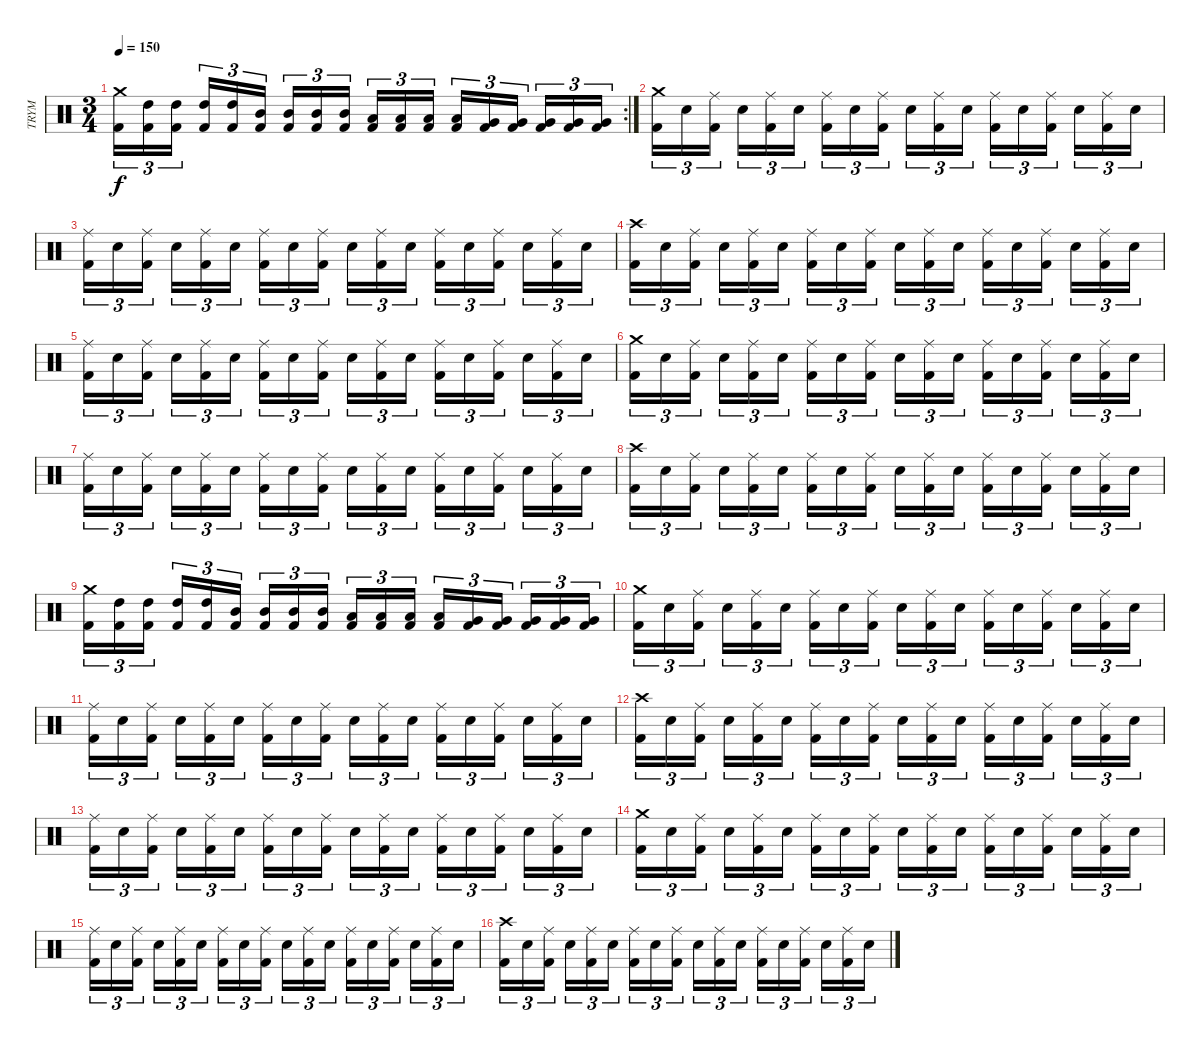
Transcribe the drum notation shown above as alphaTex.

\track ("TRYM" "TRYM") {instrument percussion}
\staff {score}
\articulation defaults
\rc 2
\ts (3 4)
\tempo 150
\clef neutral
\ks c
("Kick (hit) 2" "Crash medium (hit)").16{tu (3 2) dy f} ("Kick (hit) 2" "High Tom (hit)").16{tu (3 2)} ("Kick (hit) 2" "High Tom (hit)").16{tu (3 2)} ("Kick (hit) 2" "High Tom (hit)").16{tu (3 2)} ("Kick (hit) 2" "High Tom (hit)").16{tu (3 2)} ("Kick (hit) 2" "Mid Tom (hit)").16{tu (3 2)} ("Kick (hit) 2" "Mid Tom (hit)").16{tu (3 2)} ("Kick (hit) 2" "Mid Tom (hit)").16{tu (3 2)} ("Kick (hit) 2" "Mid Tom (hit)").16{tu (3 2)} ("Kick (hit) 2" "Low Tom (hit)").16{tu (3 2)} ("Kick (hit) 2" "Low Tom (hit)").16{tu (3 2)} ("Kick (hit) 2" "Low Tom (hit)").16{tu (3 2)} ("Kick (hit) 2" "Low Tom (hit)").16{tu (3 2)} ("Kick (hit) 2" "Very Low Tom (hit)").16{tu (3 2)} ("Kick (hit) 2" "Very Low Tom (hit)").16{tu (3 2)} ("Kick (hit) 2" "Very Low Tom (hit)").16{tu (3 2)} ("Kick (hit) 2" "Very Low Tom (hit)").16{tu (3 2)} ("Kick (hit) 2" "Very Low Tom (hit)").16{tu (3 2)} |
("Kick (hit) 2" "Crash medium (hit)").16{tu (3 2)} "Electric Snare (hit)".16{tu (3 2)} ("Kick (hit) 2" "Ride (middle)").16{tu (3 2)} "Electric Snare (hit)".16{tu (3 2)} ("Kick (hit) 2" "Ride (middle)").16{tu (3 2)} "Electric Snare (hit)".16{tu (3 2)} ("Kick (hit) 2" "Ride (middle)").16{tu (3 2)} "Electric Snare (hit)".16{tu (3 2)} ("Kick (hit) 2" "Ride (middle)").16{tu (3 2)} "Electric Snare (hit)".16{tu (3 2)} ("Kick (hit) 2" "Ride (middle)").16{tu (3 2)} "Electric Snare (hit)".16{tu (3 2)} ("Kick (hit) 2" "Ride (middle)").16{tu (3 2)} "Electric Snare (hit)".16{tu (3 2)} ("Kick (hit) 2" "Ride (middle)").16{tu (3 2)} "Electric Snare (hit)".16{tu (3 2)} ("Kick (hit) 2" "Ride (middle)").16{tu (3 2)} "Electric Snare (hit)".16{tu (3 2)} |
("Kick (hit) 2" "Ride (middle)").16{tu (3 2)} "Electric Snare (hit)".16{tu (3 2)} ("Kick (hit) 2" "Ride (middle)").16{tu (3 2)} "Electric Snare (hit)".16{tu (3 2)} ("Kick (hit) 2" "Ride (middle)").16{tu (3 2)} "Electric Snare (hit)".16{tu (3 2)} ("Kick (hit) 2" "Ride (middle)").16{tu (3 2)} "Electric Snare (hit)".16{tu (3 2)} ("Kick (hit) 2" "Ride (middle)").16{tu (3 2)} "Electric Snare (hit)".16{tu (3 2)} ("Kick (hit) 2" "Ride (middle)").16{tu (3 2)} "Electric Snare (hit)".16{tu (3 2)} ("Kick (hit) 2" "Ride (middle)").16{tu (3 2)} "Electric Snare (hit)".16{tu (3 2)} ("Kick (hit) 2" "Ride (middle)").16{tu (3 2)} "Electric Snare (hit)".16{tu (3 2)} ("Kick (hit) 2" "Ride (middle)").16{tu (3 2)} "Electric Snare (hit)".16{tu (3 2)} |
("Kick (hit) 2" "Crash high (hit)").16{tu (3 2)} "Electric Snare (hit)".16{tu (3 2)} ("Kick (hit) 2" "Ride (middle)").16{tu (3 2)} "Electric Snare (hit)".16{tu (3 2)} ("Kick (hit) 2" "Ride (middle)").16{tu (3 2)} "Electric Snare (hit)".16{tu (3 2)} ("Kick (hit) 2" "Ride (middle)").16{tu (3 2)} "Electric Snare (hit)".16{tu (3 2)} ("Kick (hit) 2" "Ride (middle)").16{tu (3 2)} "Electric Snare (hit)".16{tu (3 2)} ("Kick (hit) 2" "Ride (middle)").16{tu (3 2)} "Electric Snare (hit)".16{tu (3 2)} ("Kick (hit) 2" "Ride (middle)").16{tu (3 2)} "Electric Snare (hit)".16{tu (3 2)} ("Kick (hit) 2" "Ride (middle)").16{tu (3 2)} "Electric Snare (hit)".16{tu (3 2)} ("Kick (hit) 2" "Ride (middle)").16{tu (3 2)} "Electric Snare (hit)".16{tu (3 2)} |
("Kick (hit) 2" "Ride (middle)").16{tu (3 2)} "Electric Snare (hit)".16{tu (3 2)} ("Kick (hit) 2" "Ride (middle)").16{tu (3 2)} "Electric Snare (hit)".16{tu (3 2)} ("Kick (hit) 2" "Ride (middle)").16{tu (3 2)} "Electric Snare (hit)".16{tu (3 2)} ("Kick (hit) 2" "Ride (middle)").16{tu (3 2)} "Electric Snare (hit)".16{tu (3 2)} ("Kick (hit) 2" "Ride (middle)").16{tu (3 2)} "Electric Snare (hit)".16{tu (3 2)} ("Kick (hit) 2" "Ride (middle)").16{tu (3 2)} "Electric Snare (hit)".16{tu (3 2)} ("Kick (hit) 2" "Ride (middle)").16{tu (3 2)} "Electric Snare (hit)".16{tu (3 2)} ("Kick (hit) 2" "Ride (middle)").16{tu (3 2)} "Electric Snare (hit)".16{tu (3 2)} ("Kick (hit) 2" "Ride (middle)").16{tu (3 2)} "Electric Snare (hit)".16{tu (3 2)} |
("Kick (hit) 2" "Crash medium (hit)").16{tu (3 2)} "Electric Snare (hit)".16{tu (3 2)} ("Kick (hit) 2" "Ride (middle)").16{tu (3 2)} "Electric Snare (hit)".16{tu (3 2)} ("Kick (hit) 2" "Ride (middle)").16{tu (3 2)} "Electric Snare (hit)".16{tu (3 2)} ("Kick (hit) 2" "Ride (middle)").16{tu (3 2)} "Electric Snare (hit)".16{tu (3 2)} ("Kick (hit) 2" "Ride (middle)").16{tu (3 2)} "Electric Snare (hit)".16{tu (3 2)} ("Kick (hit) 2" "Ride (middle)").16{tu (3 2)} "Electric Snare (hit)".16{tu (3 2)} ("Kick (hit) 2" "Ride (middle)").16{tu (3 2)} "Electric Snare (hit)".16{tu (3 2)} ("Kick (hit) 2" "Ride (middle)").16{tu (3 2)} "Electric Snare (hit)".16{tu (3 2)} ("Kick (hit) 2" "Ride (middle)").16{tu (3 2)} "Electric Snare (hit)".16{tu (3 2)} |
("Kick (hit) 2" "Ride (middle)").16{tu (3 2)} "Electric Snare (hit)".16{tu (3 2)} ("Kick (hit) 2" "Ride (middle)").16{tu (3 2)} "Electric Snare (hit)".16{tu (3 2)} ("Kick (hit) 2" "Ride (middle)").16{tu (3 2)} "Electric Snare (hit)".16{tu (3 2)} ("Kick (hit) 2" "Ride (middle)").16{tu (3 2)} "Electric Snare (hit)".16{tu (3 2)} ("Kick (hit) 2" "Ride (middle)").16{tu (3 2)} "Electric Snare (hit)".16{tu (3 2)} ("Kick (hit) 2" "Ride (middle)").16{tu (3 2)} "Electric Snare (hit)".16{tu (3 2)} ("Kick (hit) 2" "Ride (middle)").16{tu (3 2)} "Electric Snare (hit)".16{tu (3 2)} ("Kick (hit) 2" "Ride (middle)").16{tu (3 2)} "Electric Snare (hit)".16{tu (3 2)} ("Kick (hit) 2" "Ride (middle)").16{tu (3 2)} "Electric Snare (hit)".16{tu (3 2)} |
("Kick (hit) 2" "Crash high (hit)").16{tu (3 2)} "Electric Snare (hit)".16{tu (3 2)} ("Kick (hit) 2" "Ride (middle)").16{tu (3 2)} "Electric Snare (hit)".16{tu (3 2)} ("Kick (hit) 2" "Ride (middle)").16{tu (3 2)} "Electric Snare (hit)".16{tu (3 2)} ("Kick (hit) 2" "Ride (middle)").16{tu (3 2)} "Electric Snare (hit)".16{tu (3 2)} ("Kick (hit) 2" "Ride (middle)").16{tu (3 2)} "Electric Snare (hit)".16{tu (3 2)} ("Kick (hit) 2" "Ride (middle)").16{tu (3 2)} "Electric Snare (hit)".16{tu (3 2)} ("Kick (hit) 2" "Ride (middle)").16{tu (3 2)} "Electric Snare (hit)".16{tu (3 2)} ("Kick (hit) 2" "Ride (middle)").16{tu (3 2)} "Electric Snare (hit)".16{tu (3 2)} ("Kick (hit) 2" "Ride (middle)").16{tu (3 2)} "Electric Snare (hit)".16{tu (3 2)} |
("Kick (hit) 2" "Crash medium (hit)").16{tu (3 2)} ("Kick (hit) 2" "High Tom (hit)").16{tu (3 2)} ("Kick (hit) 2" "High Tom (hit)").16{tu (3 2)} ("Kick (hit) 2" "High Tom (hit)").16{tu (3 2)} ("Kick (hit) 2" "High Tom (hit)").16{tu (3 2)} ("Kick (hit) 2" "Mid Tom (hit)").16{tu (3 2)} ("Kick (hit) 2" "Mid Tom (hit)").16{tu (3 2)} ("Kick (hit) 2" "Mid Tom (hit)").16{tu (3 2)} ("Kick (hit) 2" "Mid Tom (hit)").16{tu (3 2)} ("Kick (hit) 2" "Low Tom (hit)").16{tu (3 2)} ("Kick (hit) 2" "Low Tom (hit)").16{tu (3 2)} ("Kick (hit) 2" "Low Tom (hit)").16{tu (3 2)} ("Kick (hit) 2" "Low Tom (hit)").16{tu (3 2)} ("Kick (hit) 2" "Very Low Tom (hit)").16{tu (3 2)} ("Kick (hit) 2" "Very Low Tom (hit)").16{tu (3 2)} ("Kick (hit) 2" "Very Low Tom (hit)").16{tu (3 2)} ("Kick (hit) 2" "Very Low Tom (hit)").16{tu (3 2)} ("Kick (hit) 2" "Very Low Tom (hit)").16{tu (3 2)} |
("Kick (hit) 2" "Crash medium (hit)").16{tu (3 2)} "Electric Snare (hit)".16{tu (3 2)} ("Kick (hit) 2" "Ride (middle)").16{tu (3 2)} "Electric Snare (hit)".16{tu (3 2)} ("Kick (hit) 2" "Ride (middle)").16{tu (3 2)} "Electric Snare (hit)".16{tu (3 2)} ("Kick (hit) 2" "Ride (middle)").16{tu (3 2)} "Electric Snare (hit)".16{tu (3 2)} ("Kick (hit) 2" "Ride (middle)").16{tu (3 2)} "Electric Snare (hit)".16{tu (3 2)} ("Kick (hit) 2" "Ride (middle)").16{tu (3 2)} "Electric Snare (hit)".16{tu (3 2)} ("Kick (hit) 2" "Ride (middle)").16{tu (3 2)} "Electric Snare (hit)".16{tu (3 2)} ("Kick (hit) 2" "Ride (middle)").16{tu (3 2)} "Electric Snare (hit)".16{tu (3 2)} ("Kick (hit) 2" "Ride (middle)").16{tu (3 2)} "Electric Snare (hit)".16{tu (3 2)} |
("Kick (hit) 2" "Ride (middle)").16{tu (3 2)} "Electric Snare (hit)".16{tu (3 2)} ("Kick (hit) 2" "Ride (middle)").16{tu (3 2)} "Electric Snare (hit)".16{tu (3 2)} ("Kick (hit) 2" "Ride (middle)").16{tu (3 2)} "Electric Snare (hit)".16{tu (3 2)} ("Kick (hit) 2" "Ride (middle)").16{tu (3 2)} "Electric Snare (hit)".16{tu (3 2)} ("Kick (hit) 2" "Ride (middle)").16{tu (3 2)} "Electric Snare (hit)".16{tu (3 2)} ("Kick (hit) 2" "Ride (middle)").16{tu (3 2)} "Electric Snare (hit)".16{tu (3 2)} ("Kick (hit) 2" "Ride (middle)").16{tu (3 2)} "Electric Snare (hit)".16{tu (3 2)} ("Kick (hit) 2" "Ride (middle)").16{tu (3 2)} "Electric Snare (hit)".16{tu (3 2)} ("Kick (hit) 2" "Ride (middle)").16{tu (3 2)} "Electric Snare (hit)".16{tu (3 2)} |
("Kick (hit) 2" "Crash high (hit)").16{tu (3 2)} "Electric Snare (hit)".16{tu (3 2)} ("Kick (hit) 2" "Ride (middle)").16{tu (3 2)} "Electric Snare (hit)".16{tu (3 2)} ("Kick (hit) 2" "Ride (middle)").16{tu (3 2)} "Electric Snare (hit)".16{tu (3 2)} ("Kick (hit) 2" "Ride (middle)").16{tu (3 2)} "Electric Snare (hit)".16{tu (3 2)} ("Kick (hit) 2" "Ride (middle)").16{tu (3 2)} "Electric Snare (hit)".16{tu (3 2)} ("Kick (hit) 2" "Ride (middle)").16{tu (3 2)} "Electric Snare (hit)".16{tu (3 2)} ("Kick (hit) 2" "Ride (middle)").16{tu (3 2)} "Electric Snare (hit)".16{tu (3 2)} ("Kick (hit) 2" "Ride (middle)").16{tu (3 2)} "Electric Snare (hit)".16{tu (3 2)} ("Kick (hit) 2" "Ride (middle)").16{tu (3 2)} "Electric Snare (hit)".16{tu (3 2)} |
("Kick (hit) 2" "Ride (middle)").16{tu (3 2)} "Electric Snare (hit)".16{tu (3 2)} ("Kick (hit) 2" "Ride (middle)").16{tu (3 2)} "Electric Snare (hit)".16{tu (3 2)} ("Kick (hit) 2" "Ride (middle)").16{tu (3 2)} "Electric Snare (hit)".16{tu (3 2)} ("Kick (hit) 2" "Ride (middle)").16{tu (3 2)} "Electric Snare (hit)".16{tu (3 2)} ("Kick (hit) 2" "Ride (middle)").16{tu (3 2)} "Electric Snare (hit)".16{tu (3 2)} ("Kick (hit) 2" "Ride (middle)").16{tu (3 2)} "Electric Snare (hit)".16{tu (3 2)} ("Kick (hit) 2" "Ride (middle)").16{tu (3 2)} "Electric Snare (hit)".16{tu (3 2)} ("Kick (hit) 2" "Ride (middle)").16{tu (3 2)} "Electric Snare (hit)".16{tu (3 2)} ("Kick (hit) 2" "Ride (middle)").16{tu (3 2)} "Electric Snare (hit)".16{tu (3 2)} |
("Kick (hit) 2" "Crash medium (hit)").16{tu (3 2)} "Electric Snare (hit)".16{tu (3 2)} ("Kick (hit) 2" "Ride (middle)").16{tu (3 2)} "Electric Snare (hit)".16{tu (3 2)} ("Kick (hit) 2" "Ride (middle)").16{tu (3 2)} "Electric Snare (hit)".16{tu (3 2)} ("Kick (hit) 2" "Ride (middle)").16{tu (3 2)} "Electric Snare (hit)".16{tu (3 2)} ("Kick (hit) 2" "Ride (middle)").16{tu (3 2)} "Electric Snare (hit)".16{tu (3 2)} ("Kick (hit) 2" "Ride (middle)").16{tu (3 2)} "Electric Snare (hit)".16{tu (3 2)} ("Kick (hit) 2" "Ride (middle)").16{tu (3 2)} "Electric Snare (hit)".16{tu (3 2)} ("Kick (hit) 2" "Ride (middle)").16{tu (3 2)} "Electric Snare (hit)".16{tu (3 2)} ("Kick (hit) 2" "Ride (middle)").16{tu (3 2)} "Electric Snare (hit)".16{tu (3 2)} |
("Kick (hit) 2" "Ride (middle)").16{tu (3 2)} "Electric Snare (hit)".16{tu (3 2)} ("Kick (hit) 2" "Ride (middle)").16{tu (3 2)} "Electric Snare (hit)".16{tu (3 2)} ("Kick (hit) 2" "Ride (middle)").16{tu (3 2)} "Electric Snare (hit)".16{tu (3 2)} ("Kick (hit) 2" "Ride (middle)").16{tu (3 2)} "Electric Snare (hit)".16{tu (3 2)} ("Kick (hit) 2" "Ride (middle)").16{tu (3 2)} "Electric Snare (hit)".16{tu (3 2)} ("Kick (hit) 2" "Ride (middle)").16{tu (3 2)} "Electric Snare (hit)".16{tu (3 2)} ("Kick (hit) 2" "Ride (middle)").16{tu (3 2)} "Electric Snare (hit)".16{tu (3 2)} ("Kick (hit) 2" "Ride (middle)").16{tu (3 2)} "Electric Snare (hit)".16{tu (3 2)} ("Kick (hit) 2" "Ride (middle)").16{tu (3 2)} "Electric Snare (hit)".16{tu (3 2)} |
("Kick (hit) 2" "Crash high (hit)").16{tu (3 2)} "Electric Snare (hit)".16{tu (3 2)} ("Kick (hit) 2" "Ride (middle)").16{tu (3 2)} "Electric Snare (hit)".16{tu (3 2)} ("Kick (hit) 2" "Ride (middle)").16{tu (3 2)} "Electric Snare (hit)".16{tu (3 2)} ("Kick (hit) 2" "Ride (middle)").16{tu (3 2)} "Electric Snare (hit)".16{tu (3 2)} ("Kick (hit) 2" "Ride (middle)").16{tu (3 2)} "Electric Snare (hit)".16{tu (3 2)} ("Kick (hit) 2" "Ride (middle)").16{tu (3 2)} "Electric Snare (hit)".16{tu (3 2)} ("Kick (hit) 2" "Ride (middle)").16{tu (3 2)} "Electric Snare (hit)".16{tu (3 2)} ("Kick (hit) 2" "Ride (middle)").16{tu (3 2)} "Electric Snare (hit)".16{tu (3 2)} ("Kick (hit) 2" "Ride (middle)").16{tu (3 2)} "Electric Snare (hit)".16{tu (3 2)}
